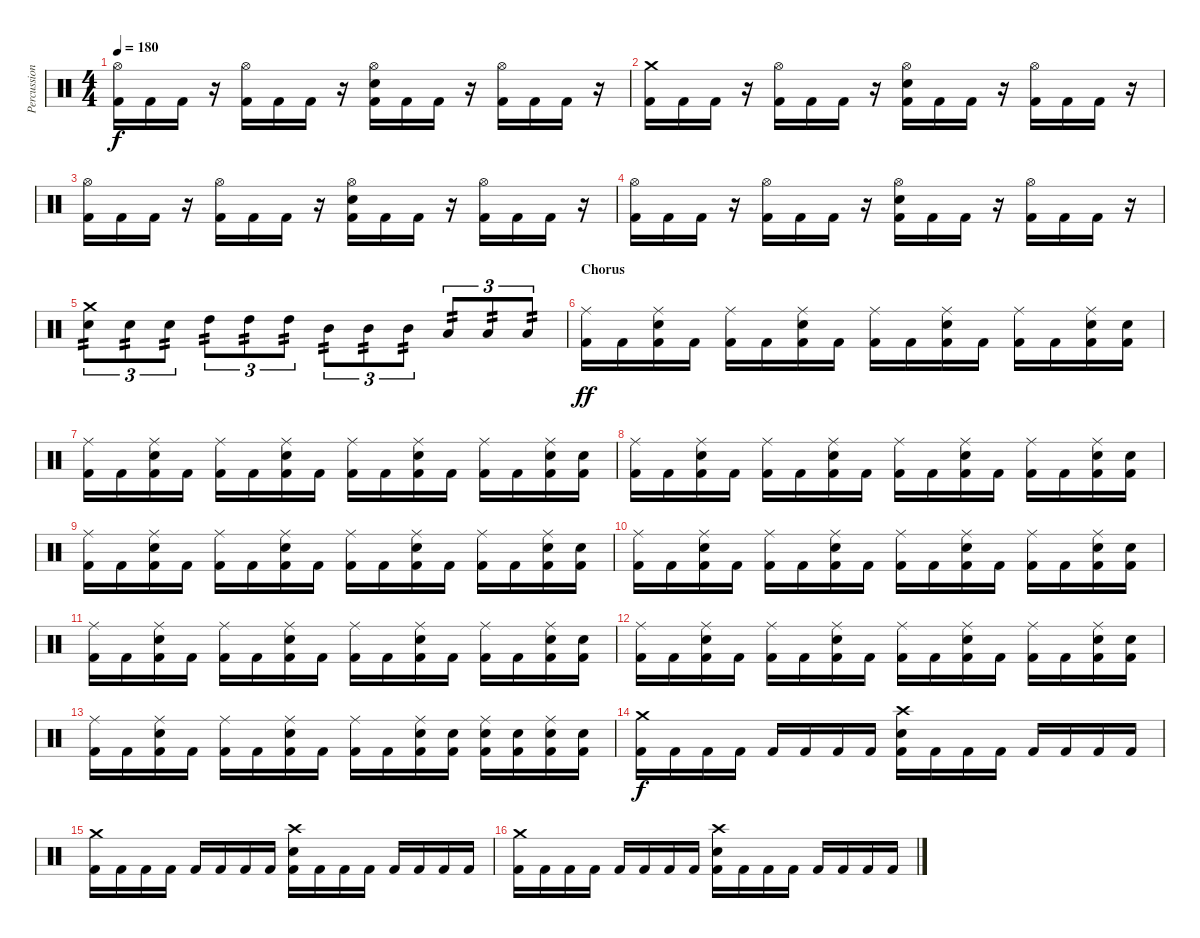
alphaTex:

\track ("Percussions" "Percussion") {instrument percussion}
\staff {score}
\articulation defaults
\ts (4 4)
\tempo 180
\clef neutral
\ks c
("Hi-Hat (open)" "Kick (hit) 2").16{dy f} "Kick (hit) 2".16 "Kick (hit) 2".16 r.16 ("Hi-Hat (open)" "Kick (hit) 2").16 "Kick (hit) 2".16 "Kick (hit) 2".16 r.16 ("Hi-Hat (open)" "Electric Snare (hit)" "Kick (hit) 2").16 "Kick (hit) 2".16 "Kick (hit) 2".16 r.16 ("Hi-Hat (open)" "Kick (hit) 2").16 "Kick (hit) 2".16 "Kick (hit) 2".16 r.16 |
("Crash medium (hit)" "Kick (hit) 2").16 "Kick (hit) 2".16 "Kick (hit) 2".16 r.16 ("Hi-Hat (open)" "Kick (hit) 2").16 "Kick (hit) 2".16 "Kick (hit) 2".16 r.16 ("Hi-Hat (open)" "Electric Snare (hit)" "Kick (hit) 2").16 "Kick (hit) 2".16 "Kick (hit) 2".16 r.16 ("Hi-Hat (open)" "Kick (hit) 2").16 "Kick (hit) 2".16 "Kick (hit) 2".16 r.16 |
("Hi-Hat (open)" "Kick (hit) 2").16 "Kick (hit) 2".16 "Kick (hit) 2".16 r.16 ("Hi-Hat (open)" "Kick (hit) 2").16 "Kick (hit) 2".16 "Kick (hit) 2".16 r.16 ("Hi-Hat (open)" "Electric Snare (hit)" "Kick (hit) 2").16 "Kick (hit) 2".16 "Kick (hit) 2".16 r.16 ("Hi-Hat (open)" "Kick (hit) 2").16 "Kick (hit) 2".16 "Kick (hit) 2".16 r.16 |
("Hi-Hat (open)" "Kick (hit) 2").16 "Kick (hit) 2".16 "Kick (hit) 2".16 r.16 ("Hi-Hat (open)" "Kick (hit) 2").16 "Kick (hit) 2".16 "Kick (hit) 2".16 r.16 ("Hi-Hat (open)" "Electric Snare (hit)" "Kick (hit) 2").16 "Kick (hit) 2".16 "Kick (hit) 2".16 r.16 ("Hi-Hat (open)" "Kick (hit) 2").16 "Kick (hit) 2".16 "Kick (hit) 2".16 r.16 |
("Crash medium (hit)" "Electric Snare (hit)").8{tu (3 2) tp 2} "Electric Snare (hit)".8{tu (3 2) tp 2} "Electric Snare (hit)".8{tu (3 2) tp 2} "High Tom (hit)".8{tu (3 2) tp 2} "High Tom (hit)".8{tu (3 2) tp 2} "High Tom (hit)".8{tu (3 2) tp 2} "Mid Tom (hit)".8{tu (3 2) tp 2} "Mid Tom (hit)".8{tu (3 2) tp 2} "Mid Tom (hit)".8{tu (3 2) tp 2} "Low Tom (hit)".8{tu (3 2) tp 2} "Low Tom (hit)".8{tu (3 2) tp 2} "Low Tom (hit)".8{tu (3 2) tp 2} |
\section ("" "Chorus")
("Ride (middle)" "Kick (hit) 2").16{dy ff} "Kick (hit) 2".16 ("Ride (middle)" "Electric Snare (hit)" "Kick (hit) 2").16 "Kick (hit) 2".16 ("Ride (middle)" "Kick (hit) 2").16 "Kick (hit) 2".16 ("Ride (middle)" "Electric Snare (hit)" "Kick (hit) 2").16 "Kick (hit) 2".16 ("Ride (middle)" "Kick (hit) 2").16 "Kick (hit) 2".16 ("Ride (middle)" "Electric Snare (hit)" "Kick (hit) 2").16 "Kick (hit) 2".16 ("Ride (middle)" "Kick (hit) 2").16 "Kick (hit) 2".16 ("Ride (middle)" "Electric Snare (hit)" "Kick (hit) 2").16 ("Electric Snare (hit)" "Kick (hit) 2").16 |
("Ride (middle)" "Kick (hit) 2").16 "Kick (hit) 2".16 ("Ride (middle)" "Electric Snare (hit)" "Kick (hit) 2").16 "Kick (hit) 2".16 ("Ride (middle)" "Kick (hit) 2").16 "Kick (hit) 2".16 ("Ride (middle)" "Electric Snare (hit)" "Kick (hit) 2").16 "Kick (hit) 2".16 ("Ride (middle)" "Kick (hit) 2").16 "Kick (hit) 2".16 ("Ride (middle)" "Electric Snare (hit)" "Kick (hit) 2").16 "Kick (hit) 2".16 ("Ride (middle)" "Kick (hit) 2").16 "Kick (hit) 2".16 ("Ride (middle)" "Electric Snare (hit)" "Kick (hit) 2").16 ("Electric Snare (hit)" "Kick (hit) 2").16 |
("Ride (middle)" "Kick (hit) 2").16 "Kick (hit) 2".16 ("Ride (middle)" "Electric Snare (hit)" "Kick (hit) 2").16 "Kick (hit) 2".16 ("Ride (middle)" "Kick (hit) 2").16 "Kick (hit) 2".16 ("Ride (middle)" "Electric Snare (hit)" "Kick (hit) 2").16 "Kick (hit) 2".16 ("Ride (middle)" "Kick (hit) 2").16 "Kick (hit) 2".16 ("Ride (middle)" "Electric Snare (hit)" "Kick (hit) 2").16 "Kick (hit) 2".16 ("Ride (middle)" "Kick (hit) 2").16 "Kick (hit) 2".16 ("Ride (middle)" "Electric Snare (hit)" "Kick (hit) 2").16 ("Electric Snare (hit)" "Kick (hit) 2").16 |
("Ride (middle)" "Kick (hit) 2").16 "Kick (hit) 2".16 ("Ride (middle)" "Electric Snare (hit)" "Kick (hit) 2").16 "Kick (hit) 2".16 ("Ride (middle)" "Kick (hit) 2").16 "Kick (hit) 2".16 ("Ride (middle)" "Electric Snare (hit)" "Kick (hit) 2").16 "Kick (hit) 2".16 ("Ride (middle)" "Kick (hit) 2").16 "Kick (hit) 2".16 ("Ride (middle)" "Electric Snare (hit)" "Kick (hit) 2").16 "Kick (hit) 2".16 ("Ride (middle)" "Kick (hit) 2").16 "Kick (hit) 2".16 ("Ride (middle)" "Electric Snare (hit)" "Kick (hit) 2").16 ("Electric Snare (hit)" "Kick (hit) 2").16 |
("Ride (middle)" "Kick (hit) 2").16 "Kick (hit) 2".16 ("Ride (middle)" "Electric Snare (hit)" "Kick (hit) 2").16 "Kick (hit) 2".16 ("Ride (middle)" "Kick (hit) 2").16 "Kick (hit) 2".16 ("Ride (middle)" "Electric Snare (hit)" "Kick (hit) 2").16 "Kick (hit) 2".16 ("Ride (middle)" "Kick (hit) 2").16 "Kick (hit) 2".16 ("Ride (middle)" "Electric Snare (hit)" "Kick (hit) 2").16 "Kick (hit) 2".16 ("Ride (middle)" "Kick (hit) 2").16 "Kick (hit) 2".16 ("Ride (middle)" "Electric Snare (hit)" "Kick (hit) 2").16 ("Electric Snare (hit)" "Kick (hit) 2").16 |
("Ride (middle)" "Kick (hit) 2").16 "Kick (hit) 2".16 ("Ride (middle)" "Electric Snare (hit)" "Kick (hit) 2").16 "Kick (hit) 2".16 ("Ride (middle)" "Kick (hit) 2").16 "Kick (hit) 2".16 ("Ride (middle)" "Electric Snare (hit)" "Kick (hit) 2").16 "Kick (hit) 2".16 ("Ride (middle)" "Kick (hit) 2").16 "Kick (hit) 2".16 ("Ride (middle)" "Electric Snare (hit)" "Kick (hit) 2").16 "Kick (hit) 2".16 ("Ride (middle)" "Kick (hit) 2").16 "Kick (hit) 2".16 ("Ride (middle)" "Electric Snare (hit)" "Kick (hit) 2").16 ("Electric Snare (hit)" "Kick (hit) 2").16 |
("Ride (middle)" "Kick (hit) 2").16 "Kick (hit) 2".16 ("Ride (middle)" "Electric Snare (hit)" "Kick (hit) 2").16 "Kick (hit) 2".16 ("Ride (middle)" "Kick (hit) 2").16 "Kick (hit) 2".16 ("Ride (middle)" "Electric Snare (hit)" "Kick (hit) 2").16 "Kick (hit) 2".16 ("Ride (middle)" "Kick (hit) 2").16 "Kick (hit) 2".16 ("Ride (middle)" "Electric Snare (hit)" "Kick (hit) 2").16 "Kick (hit) 2".16 ("Ride (middle)" "Kick (hit) 2").16 "Kick (hit) 2".16 ("Ride (middle)" "Electric Snare (hit)" "Kick (hit) 2").16 ("Electric Snare (hit)" "Kick (hit) 2").16 |
("Ride (middle)" "Kick (hit) 2").16 "Kick (hit) 2".16 ("Ride (middle)" "Electric Snare (hit)" "Kick (hit) 2").16 "Kick (hit) 2".16 ("Ride (middle)" "Kick (hit) 2").16 "Kick (hit) 2".16 ("Ride (middle)" "Electric Snare (hit)" "Kick (hit) 2").16 "Kick (hit) 2".16 ("Ride (middle)" "Kick (hit) 2").16 "Kick (hit) 2".16 ("Ride (middle)" "Electric Snare (hit)" "Kick (hit) 2").16 ("Electric Snare (hit)" "Kick (hit) 2").16 ("Ride (middle)" "Electric Snare (hit)" "Kick (hit) 2").16 ("Electric Snare (hit)" "Kick (hit) 2").16 ("Ride (middle)" "Electric Snare (hit)" "Kick (hit) 2").16 ("Electric Snare (hit)" "Kick (hit) 2").16 |
("Crash medium (hit)" "Kick (hit) 2").16{dy f} "Kick (hit) 2".16 "Kick (hit) 2".16 "Kick (hit) 2".16 "Kick (hit) 2".16 "Kick (hit) 2".16 "Kick (hit) 2".16 "Kick (hit) 2".16 ("Crash high (hit)" "Electric Snare (hit)" "Kick (hit) 2").16 "Kick (hit) 2".16 "Kick (hit) 2".16 "Kick (hit) 2".16 "Kick (hit) 2".16 "Kick (hit) 2".16 "Kick (hit) 2".16 "Kick (hit) 2".16 |
("Crash medium (hit)" "Kick (hit) 2").16 "Kick (hit) 2".16 "Kick (hit) 2".16 "Kick (hit) 2".16 "Kick (hit) 2".16 "Kick (hit) 2".16 "Kick (hit) 2".16 "Kick (hit) 2".16 ("Crash high (hit)" "Electric Snare (hit)" "Kick (hit) 2").16 "Kick (hit) 2".16 "Kick (hit) 2".16 "Kick (hit) 2".16 "Kick (hit) 2".16 "Kick (hit) 2".16 "Kick (hit) 2".16 "Kick (hit) 2".16 |
("Crash medium (hit)" "Kick (hit) 2").16 "Kick (hit) 2".16 "Kick (hit) 2".16 "Kick (hit) 2".16 "Kick (hit) 2".16 "Kick (hit) 2".16 "Kick (hit) 2".16 "Kick (hit) 2".16 ("Crash high (hit)" "Electric Snare (hit)" "Kick (hit) 2").16 "Kick (hit) 2".16 "Kick (hit) 2".16 "Kick (hit) 2".16 "Kick (hit) 2".16 "Kick (hit) 2".16 "Kick (hit) 2".16 "Kick (hit) 2".16
